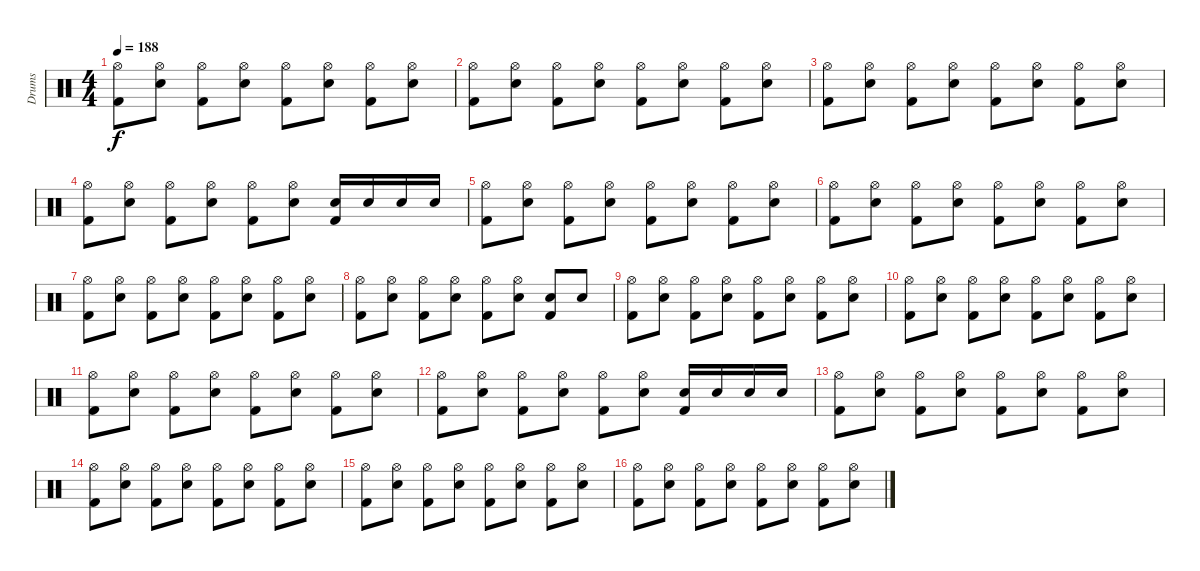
\track ("Drums" "Drums") {instrument percussion}
\staff {score}
\articulation defaults
\ts (4 4)
\tempo 188
\clef neutral
\ks c
("Hi-Hat (open)" "Kick (hit) 2").8{dy f} ("Hi-Hat (open)" "Snare (hit) 2").8 ("Hi-Hat (open)" "Kick (hit) 2").8 ("Hi-Hat (open)" "Snare (hit) 2").8 ("Hi-Hat (open)" "Kick (hit) 2").8 ("Hi-Hat (open)" "Snare (hit) 2").8 ("Hi-Hat (open)" "Kick (hit) 2").8 ("Hi-Hat (open)" "Snare (hit) 2").8 |
("Hi-Hat (open)" "Kick (hit) 2").8 ("Hi-Hat (open)" "Snare (hit) 2").8 ("Hi-Hat (open)" "Kick (hit) 2").8 ("Hi-Hat (open)" "Snare (hit) 2").8 ("Hi-Hat (open)" "Kick (hit) 2").8 ("Hi-Hat (open)" "Snare (hit) 2").8 ("Hi-Hat (open)" "Kick (hit) 2").8 ("Hi-Hat (open)" "Snare (hit) 2").8 |
("Hi-Hat (open)" "Kick (hit) 2").8 ("Hi-Hat (open)" "Snare (hit) 2").8 ("Hi-Hat (open)" "Kick (hit) 2").8 ("Hi-Hat (open)" "Snare (hit) 2").8 ("Hi-Hat (open)" "Kick (hit) 2").8 ("Hi-Hat (open)" "Snare (hit) 2").8 ("Hi-Hat (open)" "Kick (hit) 2").8 ("Hi-Hat (open)" "Snare (hit) 2").8 |
("Hi-Hat (open)" "Kick (hit) 2").8 ("Hi-Hat (open)" "Snare (hit) 2").8 ("Hi-Hat (open)" "Kick (hit) 2").8 ("Hi-Hat (open)" "Snare (hit) 2").8 ("Hi-Hat (open)" "Kick (hit) 2").8 ("Hi-Hat (open)" "Snare (hit) 2").8 ("Snare (hit) 2" "Kick (hit) 2").16 "Snare (hit) 2".16 "Snare (hit) 2".16 "Snare (hit) 2".16 |
("Hi-Hat (open)" "Kick (hit) 2").8 ("Hi-Hat (open)" "Snare (hit) 2").8 ("Hi-Hat (open)" "Kick (hit) 2").8 ("Hi-Hat (open)" "Snare (hit) 2").8 ("Hi-Hat (open)" "Kick (hit) 2").8 ("Hi-Hat (open)" "Snare (hit) 2").8 ("Hi-Hat (open)" "Kick (hit) 2").8 ("Hi-Hat (open)" "Snare (hit) 2").8 |
("Hi-Hat (open)" "Kick (hit) 2").8 ("Hi-Hat (open)" "Snare (hit) 2").8 ("Hi-Hat (open)" "Kick (hit) 2").8 ("Hi-Hat (open)" "Snare (hit) 2").8 ("Hi-Hat (open)" "Kick (hit) 2").8 ("Hi-Hat (open)" "Snare (hit) 2").8 ("Hi-Hat (open)" "Kick (hit) 2").8 ("Hi-Hat (open)" "Snare (hit) 2").8 |
("Hi-Hat (open)" "Kick (hit) 2").8 ("Hi-Hat (open)" "Snare (hit) 2").8 ("Hi-Hat (open)" "Kick (hit) 2").8 ("Hi-Hat (open)" "Snare (hit) 2").8 ("Hi-Hat (open)" "Kick (hit) 2").8 ("Hi-Hat (open)" "Snare (hit) 2").8 ("Hi-Hat (open)" "Kick (hit) 2").8 ("Hi-Hat (open)" "Snare (hit) 2").8 |
("Hi-Hat (open)" "Kick (hit) 2").8 ("Hi-Hat (open)" "Snare (hit) 2").8 ("Hi-Hat (open)" "Kick (hit) 2").8 ("Hi-Hat (open)" "Snare (hit) 2").8 ("Hi-Hat (open)" "Kick (hit) 2").8 ("Hi-Hat (open)" "Snare (hit) 2").8 ("Snare (hit) 2" "Kick (hit) 2").8 "Snare (hit) 2".8 |
("Hi-Hat (open)" "Kick (hit) 2").8 ("Hi-Hat (open)" "Snare (hit) 2").8 ("Hi-Hat (open)" "Kick (hit) 2").8 ("Hi-Hat (open)" "Snare (hit) 2").8 ("Hi-Hat (open)" "Kick (hit) 2").8 ("Hi-Hat (open)" "Snare (hit) 2").8 ("Hi-Hat (open)" "Kick (hit) 2").8 ("Hi-Hat (open)" "Snare (hit) 2").8 |
("Hi-Hat (open)" "Kick (hit) 2").8 ("Hi-Hat (open)" "Snare (hit) 2").8 ("Hi-Hat (open)" "Kick (hit) 2").8 ("Hi-Hat (open)" "Snare (hit) 2").8 ("Hi-Hat (open)" "Kick (hit) 2").8 ("Hi-Hat (open)" "Snare (hit) 2").8 ("Hi-Hat (open)" "Kick (hit) 2").8 ("Hi-Hat (open)" "Snare (hit) 2").8 |
("Hi-Hat (open)" "Kick (hit) 2").8 ("Hi-Hat (open)" "Snare (hit) 2").8 ("Hi-Hat (open)" "Kick (hit) 2").8 ("Hi-Hat (open)" "Snare (hit) 2").8 ("Hi-Hat (open)" "Kick (hit) 2").8 ("Hi-Hat (open)" "Snare (hit) 2").8 ("Hi-Hat (open)" "Kick (hit) 2").8 ("Hi-Hat (open)" "Snare (hit) 2").8 |
("Hi-Hat (open)" "Kick (hit) 2").8 ("Hi-Hat (open)" "Snare (hit) 2").8 ("Hi-Hat (open)" "Kick (hit) 2").8 ("Hi-Hat (open)" "Snare (hit) 2").8 ("Hi-Hat (open)" "Kick (hit) 2").8 ("Hi-Hat (open)" "Snare (hit) 2").8 ("Snare (hit) 2" "Kick (hit) 2").16 "Snare (hit) 2".16 "Snare (hit) 2".16 "Snare (hit) 2".16 |
("Hi-Hat (open)" "Kick (hit) 2").8 ("Hi-Hat (open)" "Snare (hit) 2").8 ("Hi-Hat (open)" "Kick (hit) 2").8 ("Hi-Hat (open)" "Snare (hit) 2").8 ("Hi-Hat (open)" "Kick (hit) 2").8 ("Hi-Hat (open)" "Snare (hit) 2").8 ("Hi-Hat (open)" "Kick (hit) 2").8 ("Hi-Hat (open)" "Snare (hit) 2").8 |
("Hi-Hat (open)" "Kick (hit) 2").8 ("Hi-Hat (open)" "Snare (hit) 2").8 ("Hi-Hat (open)" "Kick (hit) 2").8 ("Hi-Hat (open)" "Snare (hit) 2").8 ("Hi-Hat (open)" "Kick (hit) 2").8 ("Hi-Hat (open)" "Snare (hit) 2").8 ("Hi-Hat (open)" "Kick (hit) 2").8 ("Hi-Hat (open)" "Snare (hit) 2").8 |
("Hi-Hat (open)" "Kick (hit) 2").8 ("Hi-Hat (open)" "Snare (hit) 2").8 ("Hi-Hat (open)" "Kick (hit) 2").8 ("Hi-Hat (open)" "Snare (hit) 2").8 ("Hi-Hat (open)" "Kick (hit) 2").8 ("Hi-Hat (open)" "Snare (hit) 2").8 ("Hi-Hat (open)" "Kick (hit) 2").8 ("Hi-Hat (open)" "Snare (hit) 2").8 |
("Hi-Hat (open)" "Kick (hit) 2").8 ("Hi-Hat (open)" "Snare (hit) 2").8 ("Hi-Hat (open)" "Kick (hit) 2").8 ("Hi-Hat (open)" "Snare (hit) 2").8 ("Hi-Hat (open)" "Kick (hit) 2").8 ("Hi-Hat (open)" "Snare (hit) 2").8 ("Hi-Hat (open)" "Kick (hit) 2").8 ("Hi-Hat (open)" "Snare (hit) 2").8
